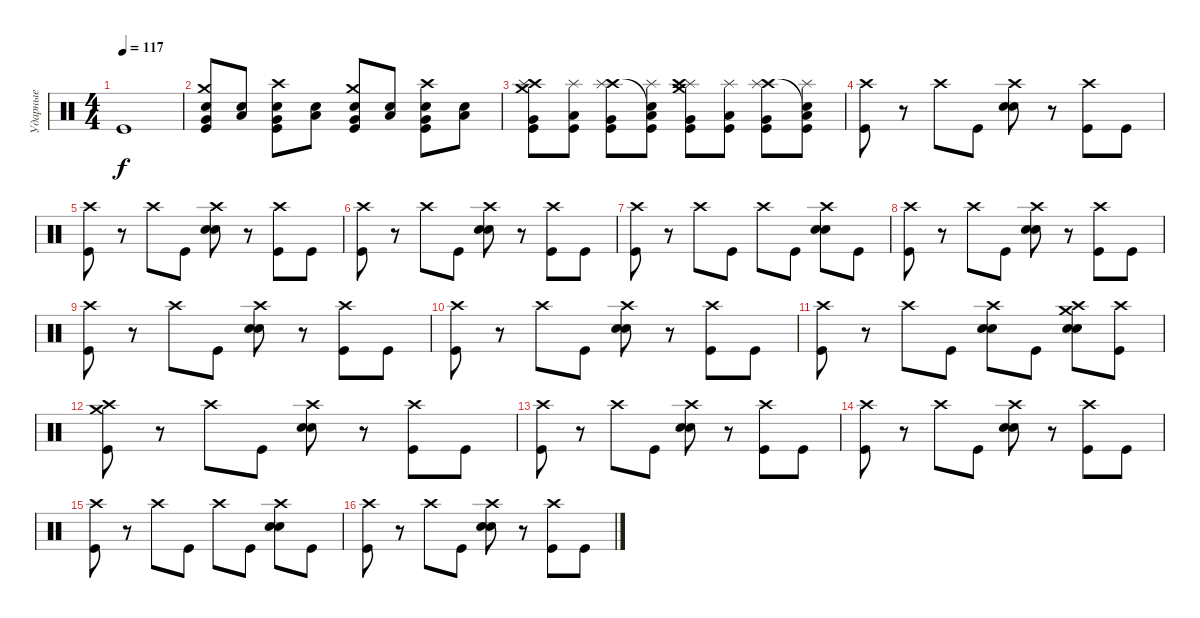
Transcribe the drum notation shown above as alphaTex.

\track ("Ударные" "Ударные") {instrument percussion}
\staff {score}
\articulation defaults
\ts (4 4)
\tempo 117
\clef neutral
\ks c "Kick (hit)".1{dy f}
|
("Crash medium (hit)" "Electric Snare (hit)" "Very Low Tom (hit)" "Kick (hit)").8 ("Electric Snare (hit)" "Low Floor Tom (hit)").8 ("Crash high (hit)" "Electric Snare (hit)" "Very Low Tom (hit)" "Kick (hit)").8 ("Electric Snare (hit)" "Low Floor Tom (hit)").8 ("Crash medium (hit)" "Electric Snare (hit)" "Very Low Tom (hit)" "Kick (hit)").8 ("Electric Snare (hit)" "Low Floor Tom (hit)").8 ("Crash high (hit)" "Electric Snare (hit)" "Very Low Tom (hit)" "Kick (hit)").8 ("Electric Snare (hit)" "Low Floor Tom (hit)").8 |
("Crash high (hit)" "Splash (hit)" "Crash medium (hit)" "Very Low Tom (hit)" "Kick (hit)").8 ("Splash (hit)" "Low Floor Tom (hit)" "Kick (hit)").8 ("Crash high (hit)" "Splash (hit)" "Very Low Tom (hit)" "Kick (hit)").8 ("Splash (hit)" "Snare (hit)"{t} "Low Floor Tom (hit)" "Kick (hit)").8 ("Crash medium (hit)" "Splash (hit)" "Crash high (hit)" "Very Low Tom (hit)" "Kick (hit)").8 ("Splash (hit)" "Low Floor Tom (hit)" "Kick (hit)").8 ("Crash high (hit)" "Splash (hit)" "Very Low Tom (hit)" "Kick (hit)").8 ("Splash (hit)" "Snare (hit)"{t} "Low Floor Tom (hit)" "Kick (hit)").8 |
("Crash high (hit)" "Kick (hit)").8 r.8 "Crash high (hit)".8 "Kick (hit)".8 ("Crash high (hit)" "Snare (hit) 2" "Snare (hit) 2").8 r.8 ("Crash high (hit)" "Kick (hit)").8 "Kick (hit)".8 |
("Crash high (hit)" "Kick (hit)").8 r.8 "Crash high (hit)".8 "Kick (hit)".8 ("Crash high (hit)" "Snare (hit) 2" "Snare (hit) 2").8 r.8 ("Crash high (hit)" "Kick (hit)").8 "Kick (hit)".8 |
("Crash high (hit)" "Kick (hit)").8 r.8 "Crash high (hit)".8 "Kick (hit)".8 ("Crash high (hit)" "Snare (hit) 2" "Snare (hit) 2").8 r.8 ("Crash high (hit)" "Kick (hit)").8 "Kick (hit)".8 |
("Crash high (hit)" "Kick (hit)").8 r.8 "Crash high (hit)".8 "Kick (hit)".8 "Crash high (hit)".8 "Kick (hit)".8 ("Crash high (hit)" "Snare (hit) 2" "Snare (hit) 2").8 "Kick (hit)".8 |
("Crash high (hit)" "Kick (hit)").8 r.8 "Crash high (hit)".8 "Kick (hit)".8 ("Crash high (hit)" "Snare (hit) 2" "Snare (hit) 2").8 r.8 ("Crash high (hit)" "Kick (hit)").8 "Kick (hit)".8 |
("Crash high (hit)" "Kick (hit)").8 r.8 "Crash high (hit)".8 "Kick (hit)".8 ("Crash high (hit)" "Snare (hit) 2" "Snare (hit) 2").8 r.8 ("Crash high (hit)" "Kick (hit)").8 "Kick (hit)".8 |
("Crash high (hit)" "Kick (hit)").8 r.8 "Crash high (hit)".8 "Kick (hit)".8 ("Crash high (hit)" "Snare (hit) 2" "Snare (hit) 2").8 r.8 ("Crash high (hit)" "Kick (hit)").8 "Kick (hit)".8 |
("Crash high (hit)" "Kick (hit)").8 r.8 "Crash high (hit)".8 "Kick (hit)".8 ("Crash high (hit)" "Snare (hit) 2" "Snare (hit) 2").8 "Kick (hit)".8 ("Crash high (hit)" "Crash medium (hit)" "Snare (hit) 2" "Snare (hit) 2").8 ("Crash high (hit)" "Kick (hit)").8 |
("Crash high (hit)" "Crash medium (hit)" "Kick (hit)").8 r.8 "Crash high (hit)".8 "Kick (hit)".8 ("Crash high (hit)" "Snare (hit) 2" "Snare (hit) 2").8 r.8 ("Crash high (hit)" "Kick (hit)").8 "Kick (hit)".8 |
("Crash high (hit)" "Kick (hit)").8 r.8 "Crash high (hit)".8 "Kick (hit)".8 ("Crash high (hit)" "Snare (hit) 2" "Snare (hit) 2").8 r.8 ("Crash high (hit)" "Kick (hit)").8 "Kick (hit)".8 |
("Crash high (hit)" "Kick (hit)").8 r.8 "Crash high (hit)".8 "Kick (hit)".8 ("Crash high (hit)" "Snare (hit) 2" "Snare (hit) 2").8 r.8 ("Crash high (hit)" "Kick (hit)").8 "Kick (hit)".8 |
("Crash high (hit)" "Kick (hit)").8 r.8 "Crash high (hit)".8 "Kick (hit)".8 "Crash high (hit)".8 "Kick (hit)".8 ("Crash high (hit)" "Snare (hit) 2" "Snare (hit) 2").8 "Kick (hit)".8 |
("Crash high (hit)" "Kick (hit)").8 r.8 "Crash high (hit)".8 "Kick (hit)".8 ("Crash high (hit)" "Snare (hit) 2" "Snare (hit) 2").8 r.8 ("Crash high (hit)" "Kick (hit)").8 "Kick (hit)".8
